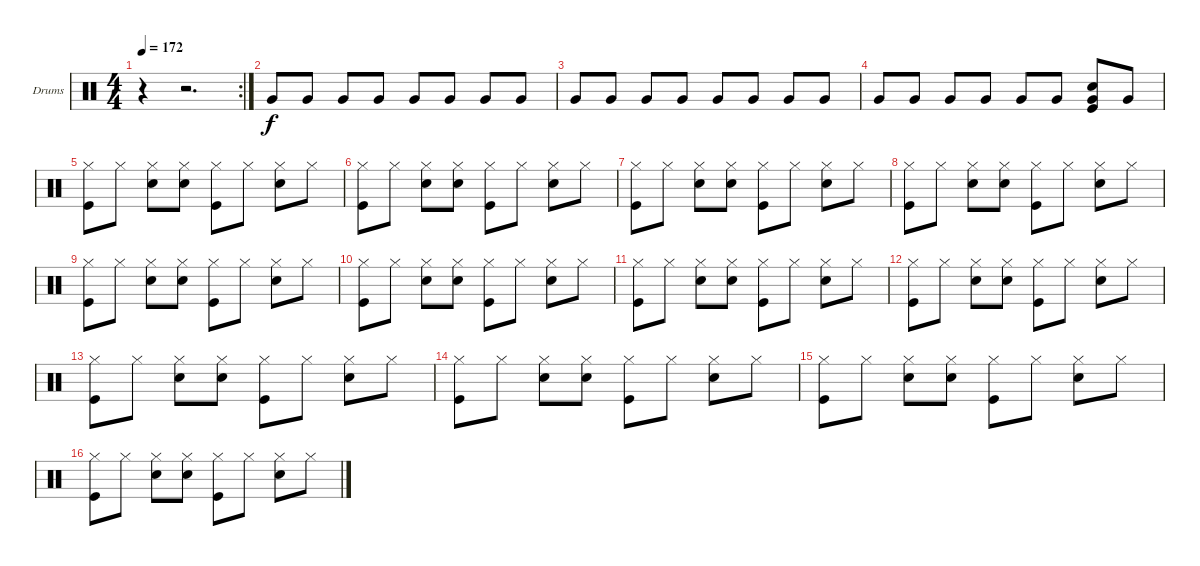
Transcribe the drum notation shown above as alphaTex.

\bracketExtendMode groupsimilarinstruments
\firstSystemTrackNameOrientation horizontal
\otherSystemsTrackNameOrientation horizontal
\track ("Drumkit" "Drums") {instrument percussion}
\staff {score}
\articulation defaults
\rc 2
\ts (4 4)
\tempo 172
\clef neutral
\ks c
r.4{dy f} r.2{d} |
"Very Low Tom (hit)".8 "Very Low Tom (hit)".8 "Very Low Tom (hit)".8 "Very Low Tom (hit)".8 "Very Low Tom (hit)".8 "Very Low Tom (hit)".8 "Very Low Tom (hit)".8 "Very Low Tom (hit)".8 |
"Very Low Tom (hit)".8 "Very Low Tom (hit)".8 "Very Low Tom (hit)".8 "Very Low Tom (hit)".8 "Very Low Tom (hit)".8 "Very Low Tom (hit)".8 "Very Low Tom (hit)".8 "Very Low Tom (hit)".8 |
"Very Low Tom (hit)".8 "Very Low Tom (hit)".8 "Very Low Tom (hit)".8 "Very Low Tom (hit)".8 "Very Low Tom (hit)".8 "Very Low Tom (hit)".8 ("Snare (hit) 2" "Very Low Tom (hit)" "Kick (hit)").8 "Very Low Tom (hit)".8 |
("Hi-Hat (closed)" "Kick (hit)").8 "Hi-Hat (closed)".8 ("Snare (hit) 2" "Hi-Hat (closed)").8 ("Snare (hit) 2" "Hi-Hat (closed)").8 ("Hi-Hat (closed)" "Kick (hit)").8 "Hi-Hat (closed)".8 ("Snare (hit) 2" "Hi-Hat (closed)").8 "Hi-Hat (closed)".8 |
("Hi-Hat (closed)" "Kick (hit)").8 "Hi-Hat (closed)".8 ("Snare (hit) 2" "Hi-Hat (closed)").8 ("Snare (hit) 2" "Hi-Hat (closed)").8 ("Hi-Hat (closed)" "Kick (hit)").8 "Hi-Hat (closed)".8 ("Snare (hit) 2" "Hi-Hat (closed)").8 "Hi-Hat (closed)".8 |
("Hi-Hat (closed)" "Kick (hit)").8 "Hi-Hat (closed)".8 ("Snare (hit) 2" "Hi-Hat (closed)").8 ("Snare (hit) 2" "Hi-Hat (closed)").8 ("Hi-Hat (closed)" "Kick (hit)").8 "Hi-Hat (closed)".8 ("Snare (hit) 2" "Hi-Hat (closed)").8 "Hi-Hat (closed)".8 |
("Hi-Hat (closed)" "Kick (hit)").8 "Hi-Hat (closed)".8 ("Snare (hit) 2" "Hi-Hat (closed)").8 ("Snare (hit) 2" "Hi-Hat (closed)").8 ("Hi-Hat (closed)" "Kick (hit)").8 "Hi-Hat (closed)".8 ("Snare (hit) 2" "Hi-Hat (closed)").8 "Hi-Hat (closed)".8 |
("Hi-Hat (closed)" "Kick (hit)").8 "Hi-Hat (closed)".8 ("Snare (hit) 2" "Hi-Hat (closed)").8 ("Snare (hit) 2" "Hi-Hat (closed)").8 ("Hi-Hat (closed)" "Kick (hit)").8 "Hi-Hat (closed)".8 ("Snare (hit) 2" "Hi-Hat (closed)").8 "Hi-Hat (closed)".8 |
("Hi-Hat (closed)" "Kick (hit)").8 "Hi-Hat (closed)".8 ("Snare (hit) 2" "Hi-Hat (closed)").8 ("Snare (hit) 2" "Hi-Hat (closed)").8 ("Hi-Hat (closed)" "Kick (hit)").8 "Hi-Hat (closed)".8 ("Snare (hit) 2" "Hi-Hat (closed)").8 "Hi-Hat (closed)".8 |
("Hi-Hat (closed)" "Kick (hit)").8 "Hi-Hat (closed)".8 ("Snare (hit) 2" "Hi-Hat (closed)").8 ("Snare (hit) 2" "Hi-Hat (closed)").8 ("Hi-Hat (closed)" "Kick (hit)").8 "Hi-Hat (closed)".8 ("Snare (hit) 2" "Hi-Hat (closed)").8 "Hi-Hat (closed)".8 |
("Hi-Hat (closed)" "Kick (hit)").8 "Hi-Hat (closed)".8 ("Snare (hit) 2" "Hi-Hat (closed)").8 ("Snare (hit) 2" "Hi-Hat (closed)").8 ("Hi-Hat (closed)" "Kick (hit)").8 "Hi-Hat (closed)".8 ("Snare (hit) 2" "Hi-Hat (closed)").8 "Hi-Hat (closed)".8 |
("Hi-Hat (closed)" "Kick (hit)").8 "Hi-Hat (closed)".8 ("Snare (hit) 2" "Hi-Hat (closed)").8 ("Snare (hit) 2" "Hi-Hat (closed)").8 ("Hi-Hat (closed)" "Kick (hit)").8 "Hi-Hat (closed)".8 ("Snare (hit) 2" "Hi-Hat (closed)").8 "Hi-Hat (closed)".8 |
("Hi-Hat (closed)" "Kick (hit)").8 "Hi-Hat (closed)".8 ("Snare (hit) 2" "Hi-Hat (closed)").8 ("Snare (hit) 2" "Hi-Hat (closed)").8 ("Hi-Hat (closed)" "Kick (hit)").8 "Hi-Hat (closed)".8 ("Snare (hit) 2" "Hi-Hat (closed)").8 "Hi-Hat (closed)".8 |
("Hi-Hat (closed)" "Kick (hit)").8 "Hi-Hat (closed)".8 ("Snare (hit) 2" "Hi-Hat (closed)").8 ("Snare (hit) 2" "Hi-Hat (closed)").8 ("Hi-Hat (closed)" "Kick (hit)").8 "Hi-Hat (closed)".8 ("Snare (hit) 2" "Hi-Hat (closed)").8 "Hi-Hat (closed)".8 |
("Hi-Hat (closed)" "Kick (hit)").8 "Hi-Hat (closed)".8 ("Snare (hit) 2" "Hi-Hat (closed)").8 ("Snare (hit) 2" "Hi-Hat (closed)").8 ("Hi-Hat (closed)" "Kick (hit)").8 "Hi-Hat (closed)".8 ("Snare (hit) 2" "Hi-Hat (closed)").8 "Hi-Hat (closed)".8
